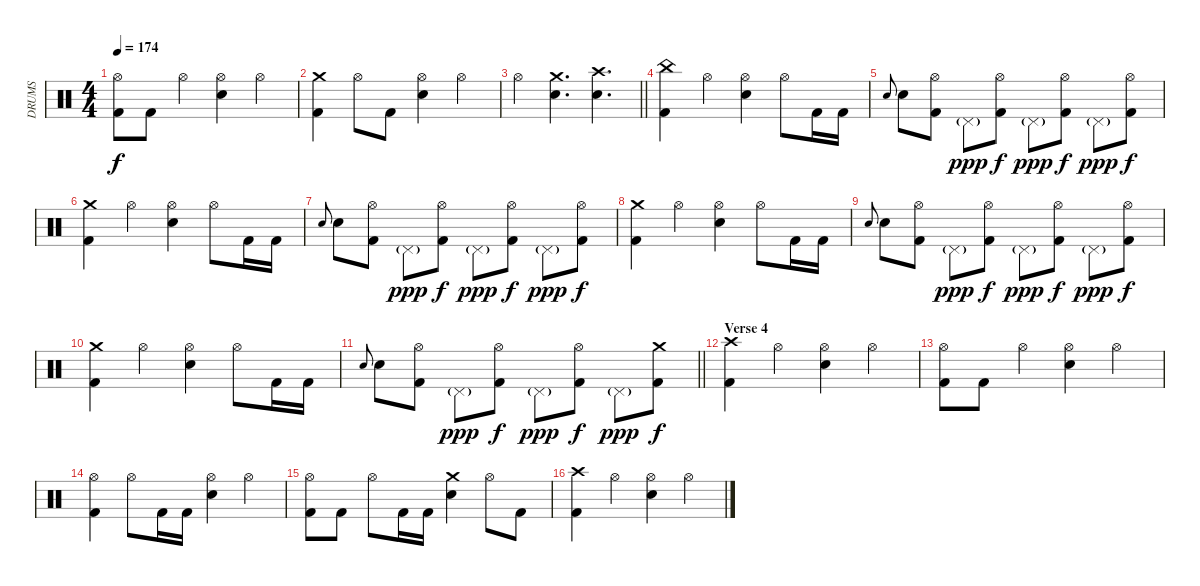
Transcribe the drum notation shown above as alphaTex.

\track ("DRUMS" "DRUMS") {instrument percussion}
\staff {score}
\articulation defaults
\ts (4 4)
\tempo 174
\clef neutral
\ks c
("Hi-Hat (open)" "Kick (hit) 2").8{dy f} "Kick (hit) 2".8 "Hi-Hat (open)".4 ("Hi-Hat (open)" "Snare (hit) 2").4 "Hi-Hat (open)".4 |
("Crash medium (hit)" "Kick (hit) 2").4 "Hi-Hat (open)".8 "Kick (hit) 2".8 ("Hi-Hat (open)" "Snare (hit) 2").4 "Hi-Hat (open)".4 |
\barLineRight lightlight "Hi-Hat (open)".4
("Crash medium (hit)" "Snare (hit) 2").4{d} ("Crash high (hit)" "Snare (hit) 2").4{d} |
("China (hit)" "Kick (hit) 2").4 "Hi-Hat (open)".4 ("Hi-Hat (open)" "Snare (hit) 2").4 "Hi-Hat (open)".8 "Kick (hit) 2".16 "Kick (hit) 2".16 |
"Snare (hit) 2".8{gr onbeat} "Snare (hit) 2".8 ("Hi-Hat (open)" "Kick (hit) 2").8 "Pedal Hi-Hat (hit)"{g}.8{dy ppp} ("Hi-Hat (open)" "Kick (hit) 2").8{dy f} "Pedal Hi-Hat (hit)"{g}.8{dy ppp} ("Hi-Hat (open)" "Kick (hit) 2").8{dy f} "Pedal Hi-Hat (hit)"{g}.8{dy ppp} ("Hi-Hat (open)" "Kick (hit) 2").8{dy f} |
("Crash medium (hit)" "Kick (hit) 2").4 "Hi-Hat (open)".4 ("Hi-Hat (open)" "Snare (hit) 2").4 "Hi-Hat (open)".8 "Kick (hit) 2".16 "Kick (hit) 2".16 |
"Snare (hit) 2".8{gr onbeat} "Snare (hit) 2".8 ("Hi-Hat (open)" "Kick (hit) 2").8 "Pedal Hi-Hat (hit)"{g}.8{dy ppp} ("Hi-Hat (open)" "Kick (hit) 2").8{dy f} "Pedal Hi-Hat (hit)"{g}.8{dy ppp} ("Hi-Hat (open)" "Kick (hit) 2").8{dy f} "Pedal Hi-Hat (hit)"{g}.8{dy ppp} ("Hi-Hat (open)" "Kick (hit) 2").8{dy f} |
("Crash medium (hit)" "Kick (hit) 2").4 "Hi-Hat (open)".4 ("Hi-Hat (open)" "Snare (hit) 2").4 "Hi-Hat (open)".8 "Kick (hit) 2".16 "Kick (hit) 2".16 |
"Snare (hit) 2".8{gr onbeat} "Snare (hit) 2".8 ("Hi-Hat (open)" "Kick (hit) 2").8 "Pedal Hi-Hat (hit)"{g}.8{dy ppp} ("Hi-Hat (open)" "Kick (hit) 2").8{dy f} "Pedal Hi-Hat (hit)"{g}.8{dy ppp} ("Hi-Hat (open)" "Kick (hit) 2").8{dy f} "Pedal Hi-Hat (hit)"{g}.8{dy ppp} ("Hi-Hat (open)" "Kick (hit) 2").8{dy f} |
("Crash medium (hit)" "Kick (hit) 2").4 "Hi-Hat (open)".4 ("Hi-Hat (open)" "Snare (hit) 2").4 "Hi-Hat (open)".8 "Kick (hit) 2".16 "Kick (hit) 2".16 |
\barLineRight lightlight "Snare (hit) 2".8{gr onbeat} "Snare (hit) 2".8
("Hi-Hat (open)" "Kick (hit) 2").8 "Pedal Hi-Hat (hit)"{g}.8{dy ppp} ("Hi-Hat (open)" "Kick (hit) 2").8{dy f} "Pedal Hi-Hat (hit)"{g}.8{dy ppp} ("Hi-Hat (open)" "Kick (hit) 2").8{dy f} "Pedal Hi-Hat (hit)"{g}.8{dy ppp} ("Crash medium (hit)" "Kick (hit) 2").8{dy f} |
\section ("" "Verse 4")
("Crash high (hit)" "Kick (hit) 2").4 "Hi-Hat (open)".4 ("Hi-Hat (open)" "Snare (hit) 2").4 "Hi-Hat (open)".4 |
("Hi-Hat (open)" "Kick (hit) 2").8 "Kick (hit) 2".8 "Hi-Hat (open)".4 ("Hi-Hat (open)" "Snare (hit) 2").4 "Hi-Hat (open)".4 |
("Hi-Hat (open)" "Kick (hit) 2").4 "Hi-Hat (open)".8 "Kick (hit) 2".16 "Kick (hit) 2".16 ("Hi-Hat (open)" "Snare (hit) 2").4 "Hi-Hat (open)".4 |
("Hi-Hat (open)" "Kick (hit) 2").8 "Kick (hit) 2".8 "Hi-Hat (open)".8 "Kick (hit) 2".16 "Kick (hit) 2".16 ("Crash medium (hit)" "Snare (hit) 2").4 "Hi-Hat (open)".8 "Kick (hit) 2".8 |
("Crash high (hit)" "Kick (hit) 2").4 "Hi-Hat (open)".4 ("Hi-Hat (open)" "Snare (hit) 2").4 "Hi-Hat (open)".4
